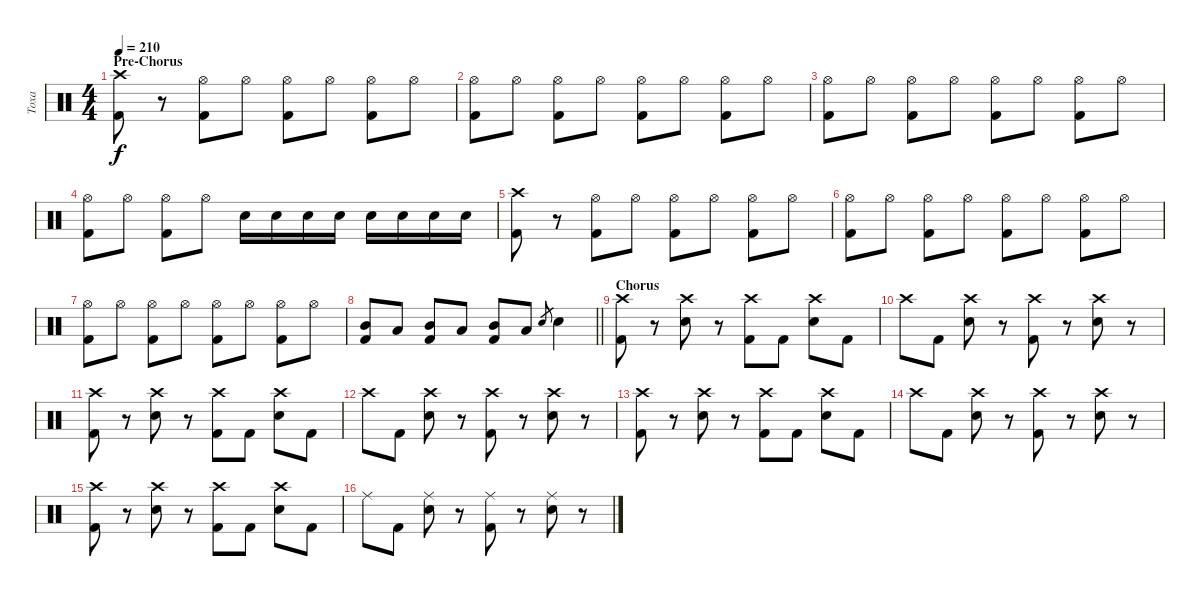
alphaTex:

\track ("Toxa" "Toxa") {instrument percussion}
\staff {score}
\articulation defaults
\ts (4 4)
\section ("" "Pre-Chorus")
\tempo 210
\clef neutral
\ks c
("Kick (hit) 2" "Crash high (hit)").8{dy f} r.8 ("Hi-Hat (open)" "Kick (hit) 2").8 "Hi-Hat (open)".8 ("Hi-Hat (open)" "Kick (hit) 2").8 "Hi-Hat (open)".8 ("Hi-Hat (open)" "Kick (hit) 2").8 "Hi-Hat (open)".8 |
("Kick (hit) 2" "Hi-Hat (open)").8 "Hi-Hat (open)".8 ("Hi-Hat (open)" "Kick (hit) 2").8 "Hi-Hat (open)".8 ("Hi-Hat (open)" "Kick (hit) 2").8 "Hi-Hat (open)".8 ("Hi-Hat (open)" "Kick (hit) 2").8 "Hi-Hat (open)".8 |
("Kick (hit) 2" "Hi-Hat (open)").8 "Hi-Hat (open)".8 ("Hi-Hat (open)" "Kick (hit) 2").8 "Hi-Hat (open)".8 ("Hi-Hat (open)" "Kick (hit) 2").8 "Hi-Hat (open)".8 ("Hi-Hat (open)" "Kick (hit) 2").8 "Hi-Hat (open)".8 |
("Kick (hit) 2" "Hi-Hat (open)").8 "Hi-Hat (open)".8 ("Hi-Hat (open)" "Kick (hit) 2").8 "Hi-Hat (open)".8 "Snare (hit) 2".16 "Snare (hit) 2".16 "Snare (hit) 2".16 "Snare (hit) 2".16 "Snare (hit) 2".16 "Snare (hit) 2".16 "Snare (hit) 2".16 "Snare (hit) 2".16 |
("Kick (hit) 2" "Crash high (hit)").8 r.8 ("Hi-Hat (open)" "Kick (hit) 2").8 "Hi-Hat (open)".8 ("Hi-Hat (open)" "Kick (hit) 2").8 "Hi-Hat (open)".8 ("Hi-Hat (open)" "Kick (hit) 2").8 "Hi-Hat (open)".8 |
("Kick (hit) 2" "Hi-Hat (open)").8 "Hi-Hat (open)".8 ("Hi-Hat (open)" "Kick (hit) 2").8 "Hi-Hat (open)".8 ("Hi-Hat (open)" "Kick (hit) 2").8 "Hi-Hat (open)".8 ("Hi-Hat (open)" "Kick (hit) 2").8 "Hi-Hat (open)".8 |
("Kick (hit) 2" "Hi-Hat (open)").8 "Hi-Hat (open)".8 ("Hi-Hat (open)" "Kick (hit) 2").8 "Hi-Hat (open)".8 ("Hi-Hat (open)" "Kick (hit) 2").8 "Hi-Hat (open)".8 ("Hi-Hat (open)" "Kick (hit) 2").8 "Hi-Hat (open)".8 |
\barLineRight lightlight
("Mid Tom (hit)" "Kick (hit) 2").8 "Low Tom (hit)".8 ("Mid Tom (hit)" "Kick (hit) 2").8 "Low Tom (hit)".8 ("Mid Tom (hit)" "Kick (hit) 2").8 "Low Tom (hit)".8 "Snare (hit) 2".8{gr} "Snare (hit) 2".4 |
\section ("" "Chorus")
("Kick (hit) 2" "Crash high (hit)").8 r.8 ("Snare (hit) 2" "Crash high (hit)").8 r.8 ("Kick (hit) 2" "Crash high (hit)").8 "Kick (hit) 2".8 ("Snare (hit) 2" "Crash high (hit)").8 "Kick (hit) 2".8 |
"Crash high (hit)".8 "Kick (hit) 2".8 ("Snare (hit) 2" "Crash high (hit)").8 r.8 ("Kick (hit) 2" "Crash high (hit)").8 r.8 ("Snare (hit) 2" "Crash high (hit)").8 r.8 |
("Kick (hit) 2" "Crash high (hit)").8 r.8 ("Snare (hit) 2" "Crash high (hit)").8 r.8 ("Kick (hit) 2" "Crash high (hit)").8 "Kick (hit) 2".8 ("Snare (hit) 2" "Crash high (hit)").8 "Kick (hit) 2".8 |
"Crash high (hit)".8 "Kick (hit) 2".8 ("Snare (hit) 2" "Crash high (hit)").8 r.8 ("Kick (hit) 2" "Crash high (hit)").8 r.8 ("Snare (hit) 2" "Crash high (hit)").8 r.8 |
("Kick (hit) 2" "Crash high (hit)").8 r.8 ("Snare (hit) 2" "Crash high (hit)").8 r.8 ("Kick (hit) 2" "Crash high (hit)").8 "Kick (hit) 2".8 ("Snare (hit) 2" "Crash high (hit)").8 "Kick (hit) 2".8 |
"Crash high (hit)".8 "Kick (hit) 2".8 ("Snare (hit) 2" "Crash high (hit)").8 r.8 ("Kick (hit) 2" "Crash high (hit)").8 r.8 ("Snare (hit) 2" "Crash high (hit)").8 r.8 |
("Kick (hit) 2" "Crash high (hit)").8 r.8 ("Snare (hit) 2" "Crash high (hit)").8 r.8 ("Kick (hit) 2" "Crash high (hit)").8 "Kick (hit) 2".8 ("Snare (hit) 2" "Crash high (hit)").8 "Kick (hit) 2".8 |
"Ride (middle)".8 "Kick (hit) 2".8 ("Snare (hit) 2" "Ride (middle)").8 r.8 ("Kick (hit) 2" "Ride (middle)").8 r.8 ("Snare (hit) 2" "Ride (middle)").8 r.8
